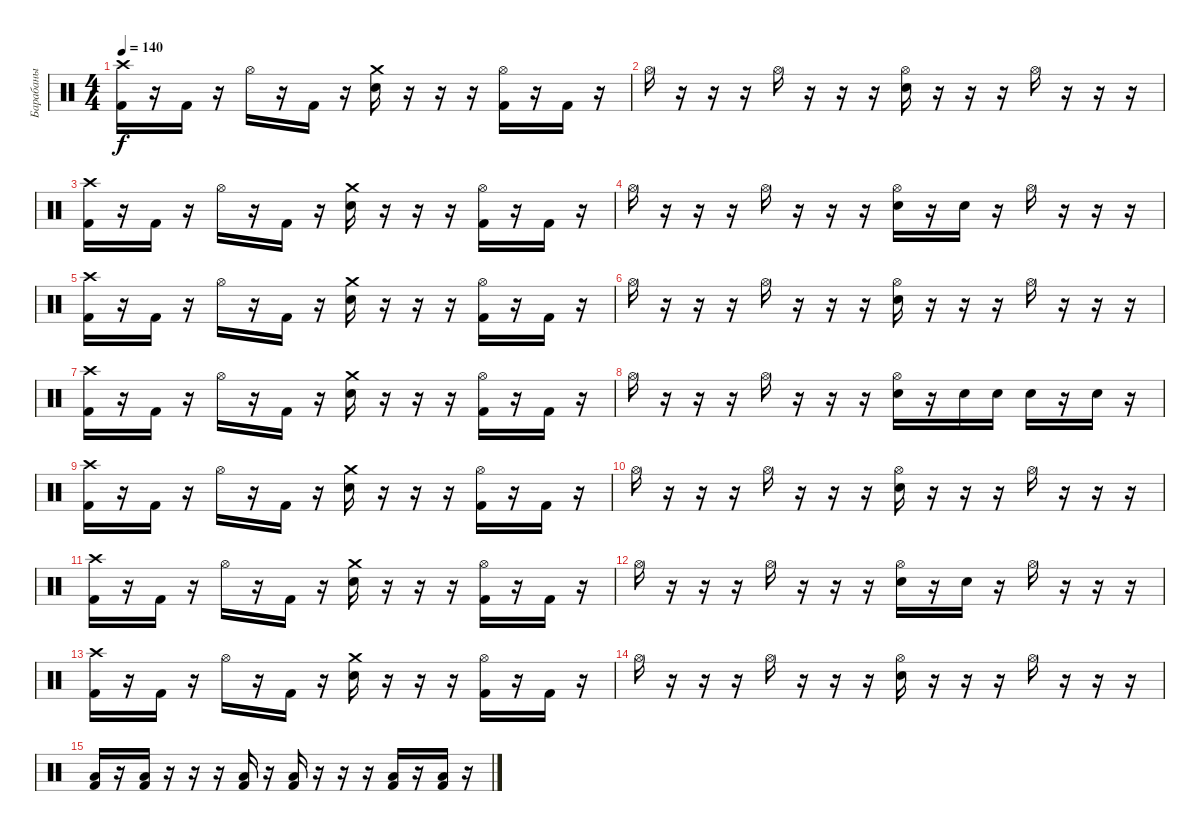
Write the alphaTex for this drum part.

\track ("Барабаны" "Барабаны") {instrument percussion}
\staff {score}
\articulation defaults
\ts (4 4)
\section ("" " ")
\tempo 140
\clef neutral
\ks c
("Crash high (hit)" "Kick (hit) 2").16{dy f} r.16 "Kick (hit) 2".16 r.16 "Hi-Hat (open)".16 r.16 "Kick (hit) 2".16 r.16 ("Crash medium (hit)" "Electric Snare (hit)").16 r.16 r.16 r.16 ("Hi-Hat (open)" "Kick (hit) 2").16 r.16 "Kick (hit) 2".16 r.16 |
"Hi-Hat (open)".16 r.16 r.16 r.16 "Hi-Hat (open)".16 r.16 r.16 r.16 ("Hi-Hat (open)" "Electric Snare (hit)").16 r.16 r.16 r.16 "Hi-Hat (open)".16 r.16 r.16 r.16 |
("Crash high (hit)" "Kick (hit) 2").16 r.16 "Kick (hit) 2".16 r.16 "Hi-Hat (open)".16 r.16 "Kick (hit) 2".16 r.16 ("Crash medium (hit)" "Electric Snare (hit)").16 r.16 r.16 r.16 ("Hi-Hat (open)" "Kick (hit) 2").16 r.16 "Kick (hit) 2".16 r.16 |
"Hi-Hat (open)".16 r.16 r.16 r.16 "Hi-Hat (open)".16 r.16 r.16 r.16 ("Hi-Hat (open)" "Electric Snare (hit)").16 r.16 "Electric Snare (hit)".16 r.16 "Hi-Hat (open)".16 r.16 r.16 r.16 |
("Crash high (hit)" "Kick (hit) 2").16 r.16 "Kick (hit) 2".16 r.16 "Hi-Hat (open)".16 r.16 "Kick (hit) 2".16 r.16 ("Crash medium (hit)" "Electric Snare (hit)").16 r.16 r.16 r.16 ("Hi-Hat (open)" "Kick (hit) 2").16 r.16 "Kick (hit) 2".16 r.16 |
"Hi-Hat (open)".16 r.16 r.16 r.16 "Hi-Hat (open)".16 r.16 r.16 r.16 ("Hi-Hat (open)" "Electric Snare (hit)").16 r.16 r.16 r.16 "Hi-Hat (open)".16 r.16 r.16 r.16 |
("Crash high (hit)" "Kick (hit) 2").16 r.16 "Kick (hit) 2".16 r.16 "Hi-Hat (open)".16 r.16 "Kick (hit) 2".16 r.16 ("Crash medium (hit)" "Electric Snare (hit)").16 r.16 r.16 r.16 ("Hi-Hat (open)" "Kick (hit) 2").16 r.16 "Kick (hit) 2".16 r.16 |
"Hi-Hat (open)".16 r.16 r.16 r.16 "Hi-Hat (open)".16 r.16 r.16 r.16 ("Hi-Hat (open)" "Electric Snare (hit)").16 r.16 "Electric Snare (hit)".16 "Electric Snare (hit)".16 "Electric Snare (hit)".16 r.16 "Electric Snare (hit)".16 r.16 |
("Crash high (hit)" "Kick (hit) 2").16 r.16 "Kick (hit) 2".16 r.16 "Hi-Hat (open)".16 r.16 "Kick (hit) 2".16 r.16 ("Crash medium (hit)" "Electric Snare (hit)").16 r.16 r.16 r.16 ("Hi-Hat (open)" "Kick (hit) 2").16 r.16 "Kick (hit) 2".16 r.16 |
"Hi-Hat (open)".16 r.16 r.16 r.16 "Hi-Hat (open)".16 r.16 r.16 r.16 ("Hi-Hat (open)" "Electric Snare (hit)").16 r.16 r.16 r.16 "Hi-Hat (open)".16 r.16 r.16 r.16 |
("Crash high (hit)" "Kick (hit) 2").16 r.16 "Kick (hit) 2".16 r.16 "Hi-Hat (open)".16 r.16 "Kick (hit) 2".16 r.16 ("Crash medium (hit)" "Electric Snare (hit)").16 r.16 r.16 r.16 ("Hi-Hat (open)" "Kick (hit) 2").16 r.16 "Kick (hit) 2".16 r.16 |
"Hi-Hat (open)".16 r.16 r.16 r.16 "Hi-Hat (open)".16 r.16 r.16 r.16 ("Hi-Hat (open)" "Electric Snare (hit)").16 r.16 "Electric Snare (hit)".16 r.16 "Hi-Hat (open)".16 r.16 r.16 r.16 |
("Crash high (hit)" "Kick (hit) 2").16 r.16 "Kick (hit) 2".16 r.16 "Hi-Hat (open)".16 r.16 "Kick (hit) 2".16 r.16 ("Crash medium (hit)" "Electric Snare (hit)").16 r.16 r.16 r.16 ("Hi-Hat (open)" "Kick (hit) 2").16 r.16 "Kick (hit) 2".16 r.16 |
"Hi-Hat (open)".16 r.16 r.16 r.16 "Hi-Hat (open)".16 r.16 r.16 r.16 ("Hi-Hat (open)" "Electric Snare (hit)").16 r.16 r.16 r.16 "Hi-Hat (open)".16 r.16 r.16 r.16 |
("Low Floor Tom (hit)" "Kick (hit) 2").16 r.16 ("Low Floor Tom (hit)" "Kick (hit) 2").16 r.16 r.16 r.16 ("Low Floor Tom (hit)" "Kick (hit) 2").16 r.16 ("Low Floor Tom (hit)" "Kick (hit) 2").16 r.16 r.16 r.16 ("Low Floor Tom (hit)" "Kick (hit) 2").16 r.16 ("Low Floor Tom (hit)" "Kick (hit) 2").16 r.16
